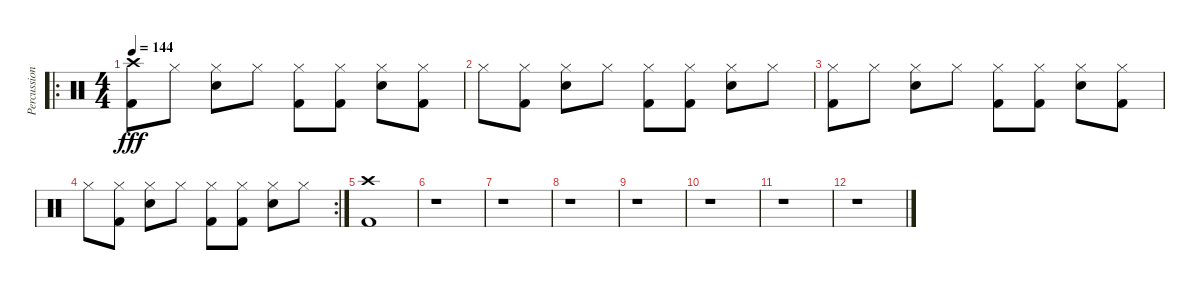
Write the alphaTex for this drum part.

\track ("Percussion" "Percussion") {instrument percussion}
\staff {score}
\articulation defaults
\ro
\ts (4 4)
\tempo 144
\clef neutral
\ks c
("Kick (hit) 2" "Crash high (hit)").8{dy fff} "Hi-Hat (closed)".8 ("Snare (hit) 2" "Hi-Hat (closed)").8 "Hi-Hat (closed)".8 ("Kick (hit) 2" "Hi-Hat (closed)").8 ("Kick (hit) 2" "Hi-Hat (closed)").8 ("Snare (hit) 2" "Hi-Hat (closed)").8 ("Kick (hit) 2" "Hi-Hat (closed)").8 |
"Hi-Hat (closed)".8 ("Kick (hit) 2" "Hi-Hat (closed)").8 ("Snare (hit) 2" "Hi-Hat (closed)").8 "Hi-Hat (closed)".8 ("Kick (hit) 2" "Hi-Hat (closed)").8 ("Kick (hit) 2" "Hi-Hat (closed)").8 ("Snare (hit) 2" "Hi-Hat (closed)").8 "Hi-Hat (closed)".8 |
("Kick (hit) 2" "Hi-Hat (closed)").8 "Hi-Hat (closed)".8 ("Snare (hit) 2" "Hi-Hat (closed)").8 "Hi-Hat (closed)".8 ("Kick (hit) 2" "Hi-Hat (closed)").8 ("Kick (hit) 2" "Hi-Hat (closed)").8 ("Snare (hit) 2" "Hi-Hat (closed)").8 ("Kick (hit) 2" "Hi-Hat (closed)").8 |
\rc 2 "Hi-Hat (closed)".8
("Kick (hit) 2" "Hi-Hat (closed)").8 ("Snare (hit) 2" "Hi-Hat (closed)").8 "Hi-Hat (closed)".8 ("Kick (hit) 2" "Hi-Hat (closed)").8 ("Kick (hit) 2" "Hi-Hat (closed)").8 ("Snare (hit) 2" "Hi-Hat (closed)").8 "Hi-Hat (closed)".8 |
("Crash high (hit)" "Kick (hit) 2").1 |
r.1 |
r.1 |
r.1 |
r.1 |
r.1 |
r.1 |
r.1
